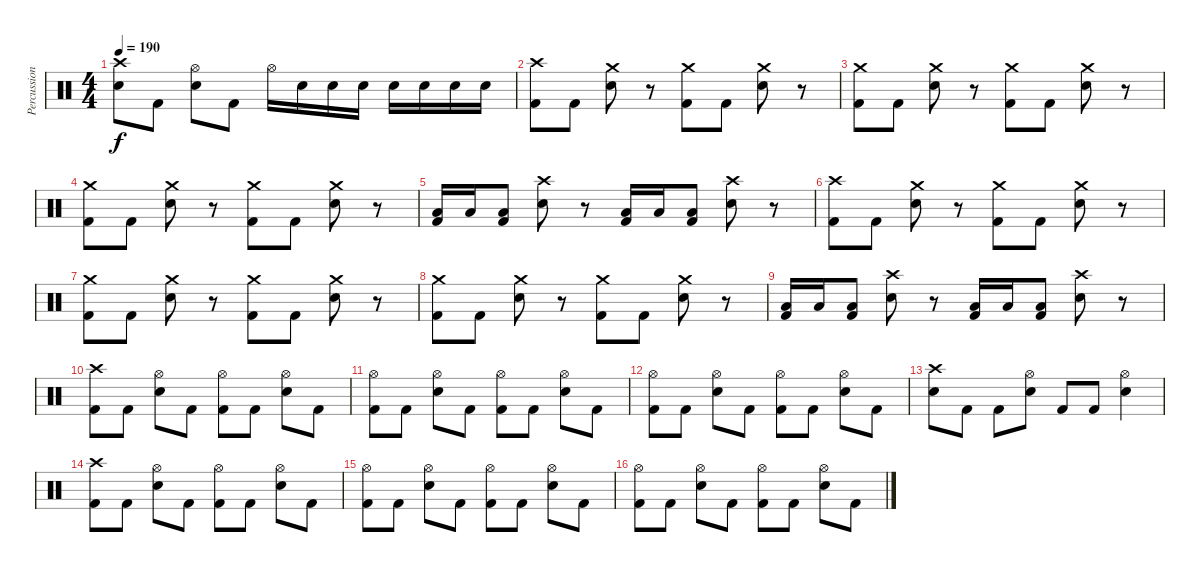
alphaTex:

\track ("Percussion" "Percussion") {instrument percussion}
\staff {score}
\articulation defaults
\ts (4 4)
\tempo 190
\clef neutral
\ks c
("Crash high (hit)" "Snare (hit) 2").8{dy f} "Kick (hit) 2".8 ("Hi-Hat (open)" "Snare (hit) 2").8 "Kick (hit) 2".8 "Hi-Hat (open)".16 "Snare (hit) 2".16 "Snare (hit) 2".16 "Snare (hit) 2".16 "Snare (hit) 2".16 "Snare (hit) 2".16 "Snare (hit) 2".16 "Snare (hit) 2".16 |
("Crash high (hit)" "Kick (hit) 2").8 "Kick (hit) 2".8 ("Crash medium (hit)" "Snare (hit) 2").8 r.8 ("Crash medium (hit)" "Kick (hit) 2").8 "Kick (hit) 2".8 ("Crash medium (hit)" "Snare (hit) 2").8 r.8 |
("Crash medium (hit)" "Kick (hit) 2").8 "Kick (hit) 2".8 ("Crash medium (hit)" "Snare (hit) 2").8 r.8 ("Crash medium (hit)" "Kick (hit) 2").8 "Kick (hit) 2".8 ("Crash medium (hit)" "Snare (hit) 2").8 r.8 |
("Crash medium (hit)" "Kick (hit) 2").8 "Kick (hit) 2".8 ("Crash medium (hit)" "Snare (hit) 2").8 r.8 ("Crash medium (hit)" "Kick (hit) 2").8 "Kick (hit) 2".8 ("Crash medium (hit)" "Snare (hit) 2").8 r.8 |
("Low Floor Tom (hit)" "Kick (hit) 2").16 "Low Floor Tom (hit)".16 ("Low Floor Tom (hit)" "Kick (hit) 2").8 ("Crash high (hit)" "Snare (hit) 2").8 r.8 ("Low Floor Tom (hit)" "Kick (hit) 2").16 "Low Floor Tom (hit)".16 ("Low Floor Tom (hit)" "Kick (hit) 2").8 ("Crash high (hit)" "Snare (hit) 2").8 r.8 |
("Crash high (hit)" "Kick (hit) 2").8 "Kick (hit) 2".8 ("Crash medium (hit)" "Snare (hit) 2").8 r.8 ("Crash medium (hit)" "Kick (hit) 2").8 "Kick (hit) 2".8 ("Crash medium (hit)" "Snare (hit) 2").8 r.8 |
("Crash medium (hit)" "Kick (hit) 2").8 "Kick (hit) 2".8 ("Crash medium (hit)" "Snare (hit) 2").8 r.8 ("Crash medium (hit)" "Kick (hit) 2").8 "Kick (hit) 2".8 ("Crash medium (hit)" "Snare (hit) 2").8 r.8 |
("Crash medium (hit)" "Kick (hit) 2").8 "Kick (hit) 2".8 ("Crash medium (hit)" "Snare (hit) 2").8 r.8 ("Crash medium (hit)" "Kick (hit) 2").8 "Kick (hit) 2".8 ("Crash medium (hit)" "Snare (hit) 2").8 r.8 |
("Low Floor Tom (hit)" "Kick (hit) 2").16 "Low Floor Tom (hit)".16 ("Low Floor Tom (hit)" "Kick (hit) 2").8 ("Crash high (hit)" "Snare (hit) 2").8 r.8 ("Low Floor Tom (hit)" "Kick (hit) 2").16 "Low Floor Tom (hit)".16 ("Low Floor Tom (hit)" "Kick (hit) 2").8 ("Crash high (hit)" "Snare (hit) 2").8 r.8 |
("Crash high (hit)" "Kick (hit) 2").8 "Kick (hit) 2".8 ("Hi-Hat (open)" "Snare (hit) 2").8 "Kick (hit) 2".8 ("Hi-Hat (open)" "Kick (hit) 2").8 "Kick (hit) 2".8 ("Hi-Hat (open)" "Snare (hit) 2").8 "Kick (hit) 2".8 |
("Hi-Hat (open)" "Kick (hit) 2").8 "Kick (hit) 2".8 ("Hi-Hat (open)" "Snare (hit) 2").8 "Kick (hit) 2".8 ("Hi-Hat (open)" "Kick (hit) 2").8 "Kick (hit) 2".8 ("Hi-Hat (open)" "Snare (hit) 2").8 "Kick (hit) 2".8 |
("Hi-Hat (open)" "Kick (hit) 2").8 "Kick (hit) 2".8 ("Hi-Hat (open)" "Snare (hit) 2").8 "Kick (hit) 2".8 ("Hi-Hat (open)" "Kick (hit) 2").8 "Kick (hit) 2".8 ("Hi-Hat (open)" "Snare (hit) 2").8 "Kick (hit) 2".8 |
("Crash high (hit)" "Snare (hit) 2").8 "Kick (hit) 2".8 "Kick (hit) 2".8 ("Hi-Hat (open)" "Snare (hit) 2").8 "Kick (hit) 2".8 "Kick (hit) 2".8 ("Hi-Hat (open)" "Snare (hit) 2").4 |
("Crash high (hit)" "Kick (hit) 2").8 "Kick (hit) 2".8 ("Hi-Hat (open)" "Snare (hit) 2").8 "Kick (hit) 2".8 ("Hi-Hat (open)" "Kick (hit) 2").8 "Kick (hit) 2".8 ("Hi-Hat (open)" "Snare (hit) 2").8 "Kick (hit) 2".8 |
("Hi-Hat (open)" "Kick (hit) 2").8 "Kick (hit) 2".8 ("Hi-Hat (open)" "Snare (hit) 2").8 "Kick (hit) 2".8 ("Hi-Hat (open)" "Kick (hit) 2").8 "Kick (hit) 2".8 ("Hi-Hat (open)" "Snare (hit) 2").8 "Kick (hit) 2".8 |
("Hi-Hat (open)" "Kick (hit) 2").8 "Kick (hit) 2".8 ("Hi-Hat (open)" "Snare (hit) 2").8 "Kick (hit) 2".8 ("Hi-Hat (open)" "Kick (hit) 2").8 "Kick (hit) 2".8 ("Hi-Hat (open)" "Snare (hit) 2").8 "Kick (hit) 2".8
